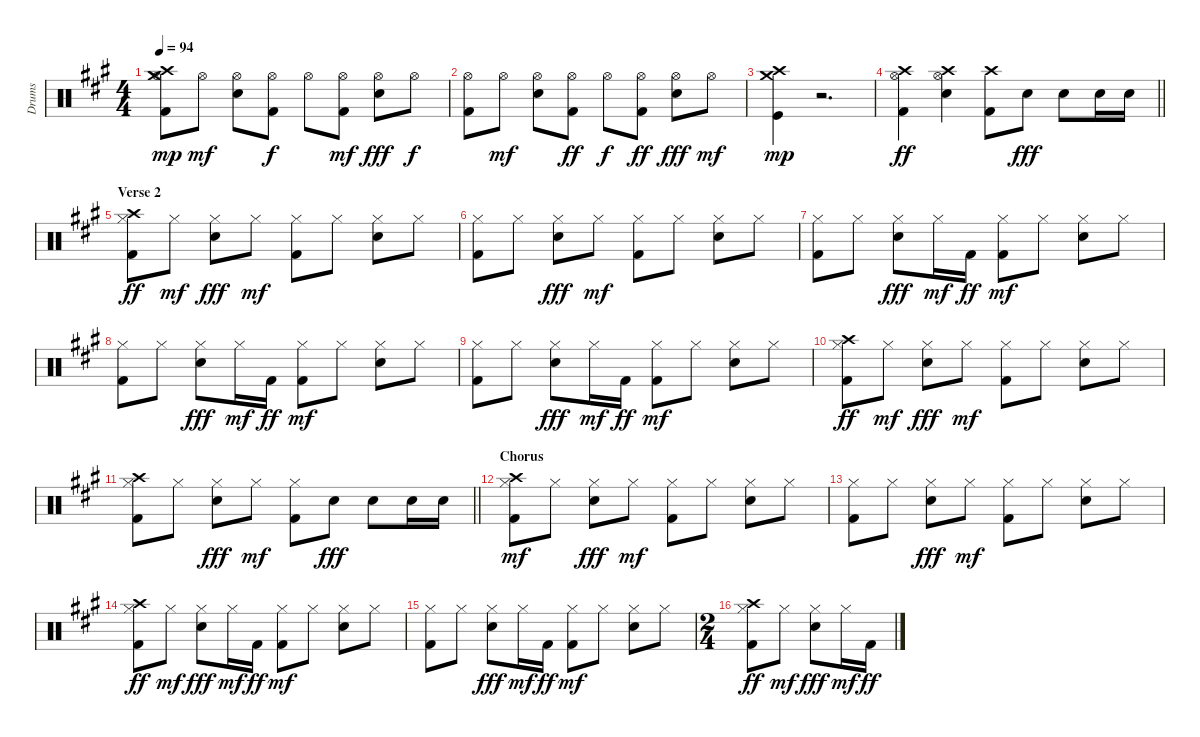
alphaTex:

\track ("Drums" "Drums") {instrument percussion}
\staff {score}
\articulation defaults
\ts (4 4)
\tempo 94
\clef neutral
\ks a
("Kick (hit) 2" "Hi-Hat (open)" "Crash high (hit)" "Crash medium (hit)").8{dy mp} "Hi-Hat (open)".8{dy mf} ("Electric Snare (hit)" "Hi-Hat (open)").8 ("Kick (hit) 2" "Hi-Hat (open)").8{dy f} "Hi-Hat (open)".8 ("Kick (hit) 2" "Hi-Hat (open)").8{dy mf} ("Electric Snare (hit)" "Hi-Hat (open)").8{dy fff} "Hi-Hat (open)".8{dy f} |
("Hi-Hat (open)" "Kick (hit) 2").8 "Hi-Hat (open)".8{dy mf} ("Electric Snare (hit)" "Hi-Hat (open)").8 ("Kick (hit) 2" "Hi-Hat (open)").8{dy ff} "Hi-Hat (open)".8{dy f} ("Kick (hit) 2" "Hi-Hat (open)").8{dy ff} ("Electric Snare (hit)" "Hi-Hat (open)").8{dy fff} "Hi-Hat (open)".8{dy mf} |
("Kick (hit)" "Crash high (hit)" "Crash medium (hit)").4{dy mp} r.2{d} |
\barLineRight lightlight
("Kick (hit) 2" "Hi-Hat (open)" "Crash high (hit)").4{dy ff} ("Electric Snare (hit)" "Hi-Hat (open)" "Crash high (hit)").4 ("Kick (hit) 2" "Crash high (hit)").8 "Electric Snare (hit)".8{dy fff} "Electric Snare (hit)".8 "Electric Snare (hit)".16 "Electric Snare (hit)".16 |
\section ("" "Verse 2")
("Kick (hit) 2" "Hi-Hat (closed)" "Crash high (hit)").8{dy ff} "Hi-Hat (closed)".8{dy mf} ("Electric Snare (hit)" "Hi-Hat (closed)").8{dy fff} "Hi-Hat (closed)".8{dy mf} ("Kick (hit) 2" "Hi-Hat (closed)").8 "Hi-Hat (closed)".8 ("Electric Snare (hit)" "Hi-Hat (closed)").8 "Hi-Hat (closed)".8 |
("Kick (hit) 2" "Hi-Hat (closed)").8 "Hi-Hat (closed)".8 ("Electric Snare (hit)" "Hi-Hat (closed)").8{dy fff} "Hi-Hat (closed)".8{dy mf} ("Kick (hit) 2" "Hi-Hat (closed)").8 "Hi-Hat (closed)".8 ("Electric Snare (hit)" "Hi-Hat (closed)").8 "Hi-Hat (closed)".8 |
("Kick (hit) 2" "Hi-Hat (closed)").8 "Hi-Hat (closed)".8 ("Electric Snare (hit)" "Hi-Hat (closed)").8{dy fff} "Hi-Hat (closed)".16{dy mf} "Kick (hit) 2".16{dy ff} ("Kick (hit) 2" "Hi-Hat (closed)").8{dy mf} "Hi-Hat (closed)".8 ("Electric Snare (hit)" "Hi-Hat (closed)").8 "Hi-Hat (closed)".8 |
("Kick (hit) 2" "Hi-Hat (closed)").8 "Hi-Hat (closed)".8 ("Electric Snare (hit)" "Hi-Hat (closed)").8{dy fff} "Hi-Hat (closed)".16{dy mf} "Kick (hit) 2".16{dy ff} ("Kick (hit) 2" "Hi-Hat (closed)").8{dy mf} "Hi-Hat (closed)".8 ("Electric Snare (hit)" "Hi-Hat (closed)").8 "Hi-Hat (closed)".8 |
("Kick (hit) 2" "Hi-Hat (closed)").8 "Hi-Hat (closed)".8 ("Electric Snare (hit)" "Hi-Hat (closed)").8{dy fff} "Hi-Hat (closed)".16{dy mf} "Kick (hit) 2".16{dy ff} ("Kick (hit) 2" "Hi-Hat (closed)").8{dy mf} "Hi-Hat (closed)".8 ("Electric Snare (hit)" "Hi-Hat (closed)").8 "Hi-Hat (closed)".8 |
("Kick (hit) 2" "Hi-Hat (closed)" "Crash high (hit)").8{dy ff} "Hi-Hat (closed)".8{dy mf} ("Electric Snare (hit)" "Hi-Hat (closed)").8{dy fff} "Hi-Hat (closed)".8{dy mf} ("Kick (hit) 2" "Hi-Hat (closed)").8 "Hi-Hat (closed)".8 ("Electric Snare (hit)" "Hi-Hat (closed)").8 "Hi-Hat (closed)".8 |
\barLineRight lightlight
("Kick (hit) 2" "Hi-Hat (closed)" "Crash high (hit)").8 "Hi-Hat (closed)".8 ("Electric Snare (hit)" "Hi-Hat (closed)").8{dy fff} "Hi-Hat (closed)".8{dy mf} ("Kick (hit) 2" "Hi-Hat (closed)").8 "Electric Snare (hit)".8{dy fff} "Electric Snare (hit)".8 "Electric Snare (hit)".16 "Electric Snare (hit)".16 |
\section ("" "Chorus")
("Kick (hit) 2" "Hi-Hat (closed)" "Crash high (hit)").8{dy mf} "Hi-Hat (closed)".8 ("Electric Snare (hit)" "Hi-Hat (closed)").8{dy fff} "Hi-Hat (closed)".8{dy mf} ("Kick (hit) 2" "Hi-Hat (closed)").8 "Hi-Hat (closed)".8 ("Electric Snare (hit)" "Hi-Hat (closed)").8 "Hi-Hat (closed)".8 |
("Kick (hit) 2" "Hi-Hat (closed)").8 "Hi-Hat (closed)".8 ("Electric Snare (hit)" "Hi-Hat (closed)").8{dy fff} "Hi-Hat (closed)".8{dy mf} ("Kick (hit) 2" "Hi-Hat (closed)").8 "Hi-Hat (closed)".8 ("Electric Snare (hit)" "Hi-Hat (closed)").8 "Hi-Hat (closed)".8 |
("Kick (hit) 2" "Hi-Hat (closed)" "Crash high (hit)").8{dy ff} "Hi-Hat (closed)".8{dy mf} ("Electric Snare (hit)" "Hi-Hat (closed)").8{dy fff} "Hi-Hat (closed)".16{dy mf} "Kick (hit) 2".16{dy ff} ("Kick (hit) 2" "Hi-Hat (closed)").8{dy mf} "Hi-Hat (closed)".8 ("Electric Snare (hit)" "Hi-Hat (closed)").8 "Hi-Hat (closed)".8 |
("Kick (hit) 2" "Hi-Hat (closed)").8 "Hi-Hat (closed)".8 ("Electric Snare (hit)" "Hi-Hat (closed)").8{dy fff} "Hi-Hat (closed)".16{dy mf} "Kick (hit) 2".16{dy ff} ("Kick (hit) 2" "Hi-Hat (closed)").8{dy mf} "Hi-Hat (closed)".8 ("Electric Snare (hit)" "Hi-Hat (closed)").8 "Hi-Hat (closed)".8 |
\ts (2 4)
("Kick (hit) 2" "Hi-Hat (closed)" "Crash high (hit)").8{dy ff} "Hi-Hat (closed)".8{dy mf} ("Electric Snare (hit)" "Hi-Hat (closed)").8{dy fff} "Hi-Hat (closed)".16{dy mf} "Kick (hit) 2".16{dy ff}
